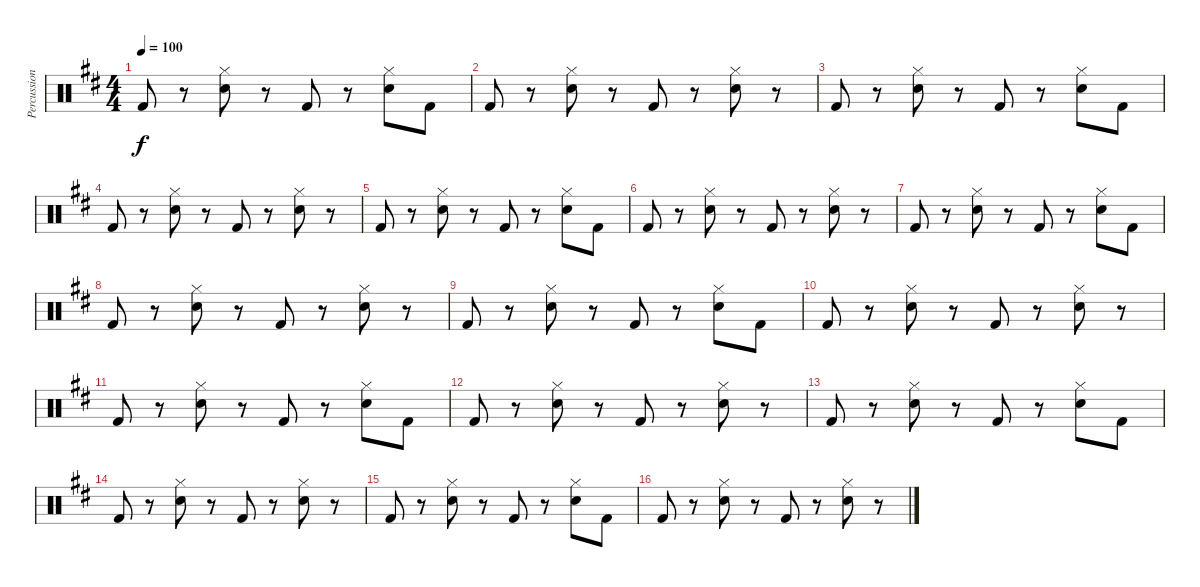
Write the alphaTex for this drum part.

\track ("Percussion" "Percussion") {instrument percussion}
\staff {score}
\articulation defaults
\ts (4 4)
\tempo 100
\clef neutral
\ks d "Kick (hit) 2".8{dy f}
r.8 ("Hi-Hat (closed)" "Snare (hit) 2").8 r.8 "Kick (hit) 2".8 r.8 ("Hi-Hat (closed)" "Snare (hit) 2").8 "Kick (hit) 2".8 |
"Kick (hit) 2".8 r.8 ("Hi-Hat (closed)" "Snare (hit) 2").8 r.8 "Kick (hit) 2".8 r.8 ("Hi-Hat (closed)" "Snare (hit) 2").8 r.8 |
"Kick (hit) 2".8 r.8 ("Hi-Hat (closed)" "Snare (hit) 2").8 r.8 "Kick (hit) 2".8 r.8 ("Hi-Hat (closed)" "Snare (hit) 2").8 "Kick (hit) 2".8 |
"Kick (hit) 2".8 r.8 ("Hi-Hat (closed)" "Snare (hit) 2").8 r.8 "Kick (hit) 2".8 r.8 ("Hi-Hat (closed)" "Snare (hit) 2").8 r.8 |
"Kick (hit) 2".8 r.8 ("Hi-Hat (closed)" "Snare (hit) 2").8 r.8 "Kick (hit) 2".8 r.8 ("Hi-Hat (closed)" "Snare (hit) 2").8 "Kick (hit) 2".8 |
"Kick (hit) 2".8 r.8 ("Hi-Hat (closed)" "Snare (hit) 2").8 r.8 "Kick (hit) 2".8 r.8 ("Hi-Hat (closed)" "Snare (hit) 2").8 r.8 |
"Kick (hit) 2".8 r.8 ("Hi-Hat (closed)" "Snare (hit) 2").8 r.8 "Kick (hit) 2".8 r.8 ("Hi-Hat (closed)" "Snare (hit) 2").8 "Kick (hit) 2".8 |
"Kick (hit) 2".8 r.8 ("Hi-Hat (closed)" "Snare (hit) 2").8 r.8 "Kick (hit) 2".8 r.8 ("Hi-Hat (closed)" "Snare (hit) 2").8 r.8 |
"Kick (hit) 2".8 r.8 ("Hi-Hat (closed)" "Snare (hit) 2").8 r.8 "Kick (hit) 2".8 r.8 ("Hi-Hat (closed)" "Snare (hit) 2").8 "Kick (hit) 2".8 |
"Kick (hit) 2".8 r.8 ("Hi-Hat (closed)" "Snare (hit) 2").8 r.8 "Kick (hit) 2".8 r.8 ("Hi-Hat (closed)" "Snare (hit) 2").8 r.8 |
"Kick (hit) 2".8 r.8 ("Hi-Hat (closed)" "Snare (hit) 2").8 r.8 "Kick (hit) 2".8 r.8 ("Hi-Hat (closed)" "Snare (hit) 2").8 "Kick (hit) 2".8 |
"Kick (hit) 2".8 r.8 ("Hi-Hat (closed)" "Snare (hit) 2").8 r.8 "Kick (hit) 2".8 r.8 ("Hi-Hat (closed)" "Snare (hit) 2").8 r.8 |
"Kick (hit) 2".8 r.8 ("Hi-Hat (closed)" "Snare (hit) 2").8 r.8 "Kick (hit) 2".8 r.8 ("Hi-Hat (closed)" "Snare (hit) 2").8 "Kick (hit) 2".8 |
"Kick (hit) 2".8 r.8 ("Hi-Hat (closed)" "Snare (hit) 2").8 r.8 "Kick (hit) 2".8 r.8 ("Hi-Hat (closed)" "Snare (hit) 2").8 r.8 |
"Kick (hit) 2".8 r.8 ("Hi-Hat (closed)" "Snare (hit) 2").8 r.8 "Kick (hit) 2".8 r.8 ("Hi-Hat (closed)" "Snare (hit) 2").8 "Kick (hit) 2".8 |
"Kick (hit) 2".8 r.8 ("Hi-Hat (closed)" "Snare (hit) 2").8 r.8 "Kick (hit) 2".8 r.8 ("Hi-Hat (closed)" "Snare (hit) 2").8 r.8
